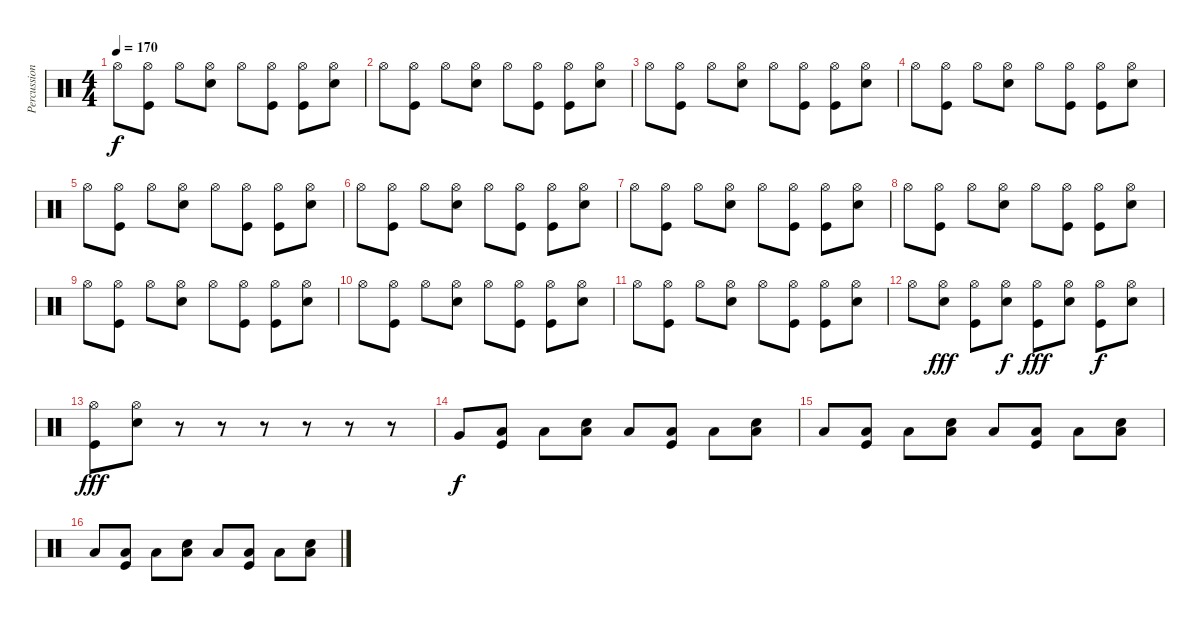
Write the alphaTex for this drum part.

\track ("Percussion" "Percussion") {instrument percussion}
\staff {score}
\articulation defaults
\ts (4 4)
\tempo 170
\clef neutral
\ks c "Hi-Hat (open)".8{dy f}
("Hi-Hat (open)" "Kick (hit)").8 "Hi-Hat (open)".8 ("Hi-Hat (open)" "Electric Snare (hit)").8 "Hi-Hat (open)".8 ("Hi-Hat (open)" "Kick (hit)").8 ("Hi-Hat (open)" "Kick (hit)").8 ("Hi-Hat (open)" "Electric Snare (hit)").8 |
"Hi-Hat (open)".8 ("Hi-Hat (open)" "Kick (hit)").8 "Hi-Hat (open)".8 ("Hi-Hat (open)" "Electric Snare (hit)").8 "Hi-Hat (open)".8 ("Hi-Hat (open)" "Kick (hit)").8 ("Hi-Hat (open)" "Kick (hit)").8 ("Hi-Hat (open)" "Electric Snare (hit)").8 |
"Hi-Hat (open)".8 ("Hi-Hat (open)" "Kick (hit)").8 "Hi-Hat (open)".8 ("Hi-Hat (open)" "Electric Snare (hit)").8 "Hi-Hat (open)".8 ("Hi-Hat (open)" "Kick (hit)").8 ("Hi-Hat (open)" "Kick (hit)").8 ("Hi-Hat (open)" "Electric Snare (hit)").8 |
"Hi-Hat (open)".8 ("Hi-Hat (open)" "Kick (hit)").8 "Hi-Hat (open)".8 ("Hi-Hat (open)" "Electric Snare (hit)").8 "Hi-Hat (open)".8 ("Hi-Hat (open)" "Kick (hit)").8 ("Hi-Hat (open)" "Kick (hit)").8 ("Hi-Hat (open)" "Electric Snare (hit)").8 |
"Hi-Hat (open)".8 ("Hi-Hat (open)" "Kick (hit)").8 "Hi-Hat (open)".8 ("Hi-Hat (open)" "Electric Snare (hit)").8 "Hi-Hat (open)".8 ("Hi-Hat (open)" "Kick (hit)").8 ("Hi-Hat (open)" "Kick (hit)").8 ("Hi-Hat (open)" "Electric Snare (hit)").8 |
"Hi-Hat (open)".8 ("Hi-Hat (open)" "Kick (hit)").8 "Hi-Hat (open)".8 ("Hi-Hat (open)" "Electric Snare (hit)").8 "Hi-Hat (open)".8 ("Hi-Hat (open)" "Kick (hit)").8 ("Hi-Hat (open)" "Kick (hit)").8 ("Hi-Hat (open)" "Electric Snare (hit)").8 |
"Hi-Hat (open)".8 ("Hi-Hat (open)" "Kick (hit)").8 "Hi-Hat (open)".8 ("Hi-Hat (open)" "Electric Snare (hit)").8 "Hi-Hat (open)".8 ("Hi-Hat (open)" "Kick (hit)").8 ("Hi-Hat (open)" "Kick (hit)").8 ("Hi-Hat (open)" "Electric Snare (hit)").8 |
"Hi-Hat (open)".8 ("Hi-Hat (open)" "Kick (hit)").8 "Hi-Hat (open)".8 ("Hi-Hat (open)" "Electric Snare (hit)").8 "Hi-Hat (open)".8 ("Hi-Hat (open)" "Kick (hit)").8 ("Hi-Hat (open)" "Kick (hit)").8 ("Hi-Hat (open)" "Electric Snare (hit)").8 |
"Hi-Hat (open)".8 ("Hi-Hat (open)" "Kick (hit)").8 "Hi-Hat (open)".8 ("Hi-Hat (open)" "Electric Snare (hit)").8 "Hi-Hat (open)".8 ("Hi-Hat (open)" "Kick (hit)").8 ("Hi-Hat (open)" "Kick (hit)").8 ("Hi-Hat (open)" "Electric Snare (hit)").8 |
"Hi-Hat (open)".8 ("Hi-Hat (open)" "Kick (hit)").8 "Hi-Hat (open)".8 ("Hi-Hat (open)" "Electric Snare (hit)").8 "Hi-Hat (open)".8 ("Hi-Hat (open)" "Kick (hit)").8 ("Hi-Hat (open)" "Kick (hit)").8 ("Hi-Hat (open)" "Electric Snare (hit)").8 |
"Hi-Hat (open)".8 ("Hi-Hat (open)" "Kick (hit)").8 "Hi-Hat (open)".8 ("Hi-Hat (open)" "Electric Snare (hit)").8 "Hi-Hat (open)".8 ("Hi-Hat (open)" "Kick (hit)").8 ("Hi-Hat (open)" "Kick (hit)").8 ("Hi-Hat (open)" "Electric Snare (hit)").8 |
"Hi-Hat (open)".8 ("Hi-Hat (open)" "Electric Snare (hit)").8{dy fff} ("Hi-Hat (open)" "Kick (hit)").8 ("Hi-Hat (open)" "Electric Snare (hit)").8{dy f} ("Hi-Hat (open)" "Kick (hit)").8{dy fff} ("Hi-Hat (open)" "Electric Snare (hit)").8 ("Hi-Hat (open)" "Kick (hit)").8{dy f} ("Hi-Hat (open)" "Electric Snare (hit)").8 |
("Hi-Hat (open)" "Kick (hit)").8{dy fff} ("Hi-Hat (open)" "Electric Snare (hit)").8 r.8 r.8 r.8 r.8 r.8 r.8 |
"Very Low Tom (hit)".8{dy f} ("Low Floor Tom (hit)" "Kick (hit)").8 "Low Floor Tom (hit)".8 ("Low Floor Tom (hit)" "Electric Snare (hit)").8 "Low Floor Tom (hit)".8 ("Low Floor Tom (hit)" "Kick (hit)").8 "Low Floor Tom (hit)".8 ("Low Floor Tom (hit)" "Electric Snare (hit)").8 |
"Low Floor Tom (hit)".8 ("Low Floor Tom (hit)" "Kick (hit)").8 "Low Floor Tom (hit)".8 ("Low Floor Tom (hit)" "Electric Snare (hit)").8 "Low Floor Tom (hit)".8 ("Low Floor Tom (hit)" "Kick (hit)").8 "Low Floor Tom (hit)".8 ("Low Floor Tom (hit)" "Electric Snare (hit)").8 |
"Low Floor Tom (hit)".8 ("Low Floor Tom (hit)" "Kick (hit)").8 "Low Floor Tom (hit)".8 ("Low Floor Tom (hit)" "Electric Snare (hit)").8 "Low Floor Tom (hit)".8 ("Low Floor Tom (hit)" "Kick (hit)").8 "Low Floor Tom (hit)".8 ("Low Floor Tom (hit)" "Electric Snare (hit)").8
